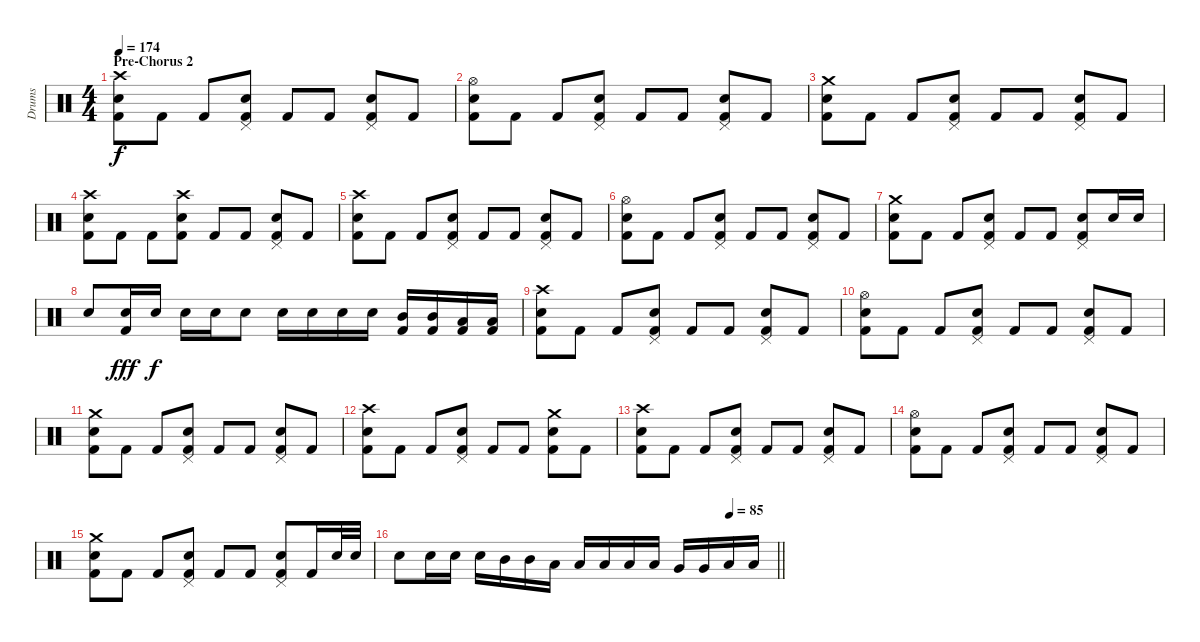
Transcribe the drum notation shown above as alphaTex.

\track ("Drums" "Drums") {instrument percussion}
\staff {score}
\articulation defaults
\ts (4 4)
\section ("" "Pre-Chorus 2")
\tempo 174
\clef neutral
\ks c
("Crash high (hit)" "Electric Snare (hit)" "Kick (hit) 2").8{dy f} "Kick (hit) 2".8 "Kick (hit) 2".8 ("Pedal Hi-Hat (hit)" "Electric Snare (hit)" "Kick (hit) 2").8 "Kick (hit) 2".8 "Kick (hit) 2".8 ("Pedal Hi-Hat (hit)" "Electric Snare (hit)" "Kick (hit) 2").8 "Kick (hit) 2".8 |
("Hi-Hat (open)" "Electric Snare (hit)" "Kick (hit) 2").8 "Kick (hit) 2".8 "Kick (hit) 2".8 ("Pedal Hi-Hat (hit)" "Electric Snare (hit)" "Kick (hit) 2").8 "Kick (hit) 2".8 "Kick (hit) 2".8 ("Pedal Hi-Hat (hit)" "Electric Snare (hit)" "Kick (hit) 2").8 "Kick (hit) 2".8 |
("Crash medium (hit)" "Electric Snare (hit)" "Kick (hit) 2").8 "Kick (hit) 2".8 "Kick (hit) 2".8 ("Pedal Hi-Hat (hit)" "Electric Snare (hit)" "Kick (hit) 2").8 "Kick (hit) 2".8 "Kick (hit) 2".8 ("Pedal Hi-Hat (hit)" "Electric Snare (hit)" "Kick (hit) 2").8 "Kick (hit) 2".8 |
("Crash high (hit)" "Electric Snare (hit)" "Kick (hit) 2").8 "Kick (hit) 2".8 "Kick (hit) 2".8 ("Crash high (hit)" "Electric Snare (hit)" "Kick (hit) 2").8 "Kick (hit) 2".8 "Kick (hit) 2".8 ("Pedal Hi-Hat (hit)" "Electric Snare (hit)" "Kick (hit) 2").8 "Kick (hit) 2".8 |
("Crash high (hit)" "Electric Snare (hit)" "Kick (hit) 2").8 "Kick (hit) 2".8 "Kick (hit) 2".8 ("Pedal Hi-Hat (hit)" "Electric Snare (hit)" "Kick (hit) 2").8 "Kick (hit) 2".8 "Kick (hit) 2".8 ("Pedal Hi-Hat (hit)" "Electric Snare (hit)" "Kick (hit) 2").8 "Kick (hit) 2".8 |
("Hi-Hat (open)" "Electric Snare (hit)" "Kick (hit) 2").8 "Kick (hit) 2".8 "Kick (hit) 2".8 ("Pedal Hi-Hat (hit)" "Electric Snare (hit)" "Kick (hit) 2").8 "Kick (hit) 2".8 "Kick (hit) 2".8 ("Pedal Hi-Hat (hit)" "Electric Snare (hit)" "Kick (hit) 2").8 "Kick (hit) 2".8 |
("Crash medium (hit)" "Electric Snare (hit)" "Kick (hit) 2").8 "Kick (hit) 2".8 "Kick (hit) 2".8 ("Pedal Hi-Hat (hit)" "Electric Snare (hit)" "Kick (hit) 2").8 "Kick (hit) 2".8 "Kick (hit) 2".8 ("Pedal Hi-Hat (hit)" "Electric Snare (hit)" "Kick (hit) 2").8 "Electric Snare (hit)".16 "Electric Snare (hit)".16 |
"Electric Snare (hit)".8 ("Electric Snare (hit)" "Kick (hit) 2").16{dy fff} "Electric Snare (hit)".16{dy f} "Electric Snare (hit)".16 "Electric Snare (hit)".16 "Electric Snare (hit)".8 "Electric Snare (hit)".16 "Electric Snare (hit)".16 "Electric Snare (hit)".16 "Electric Snare (hit)".16 ("Mid Tom (hit)" "Kick (hit) 2").16 ("Mid Tom (hit)" "Kick (hit) 2").16 ("Low Tom (hit)" "Kick (hit) 2").16 ("Low Tom (hit)" "Kick (hit) 2").16 |
("Crash high (hit)" "Electric Snare (hit)" "Kick (hit) 2").8 "Kick (hit) 2".8 "Kick (hit) 2".8 ("Pedal Hi-Hat (hit)" "Electric Snare (hit)" "Kick (hit) 2").8 "Kick (hit) 2".8 "Kick (hit) 2".8 ("Pedal Hi-Hat (hit)" "Electric Snare (hit)" "Kick (hit) 2").8 "Kick (hit) 2".8 |
("Hi-Hat (open)" "Electric Snare (hit)" "Kick (hit) 2").8 "Kick (hit) 2".8 "Kick (hit) 2".8 ("Pedal Hi-Hat (hit)" "Electric Snare (hit)" "Kick (hit) 2").8 "Kick (hit) 2".8 "Kick (hit) 2".8 ("Pedal Hi-Hat (hit)" "Electric Snare (hit)" "Kick (hit) 2").8 "Kick (hit) 2".8 |
("Crash medium (hit)" "Electric Snare (hit)" "Kick (hit) 2").8 "Kick (hit) 2".8 "Kick (hit) 2".8 ("Pedal Hi-Hat (hit)" "Electric Snare (hit)" "Kick (hit) 2").8 "Kick (hit) 2".8 "Kick (hit) 2".8 ("Pedal Hi-Hat (hit)" "Electric Snare (hit)" "Kick (hit) 2").8 "Kick (hit) 2".8 |
("Crash high (hit)" "Electric Snare (hit)" "Kick (hit) 2").8 "Kick (hit) 2".8 "Kick (hit) 2".8 ("Pedal Hi-Hat (hit)" "Electric Snare (hit)" "Kick (hit) 2").8 "Kick (hit) 2".8 "Kick (hit) 2".8 ("Crash medium (hit)" "Electric Snare (hit)" "Kick (hit) 2").8 "Kick (hit) 2".8 |
("Crash high (hit)" "Electric Snare (hit)" "Kick (hit) 2").8 "Kick (hit) 2".8 "Kick (hit) 2".8 ("Pedal Hi-Hat (hit)" "Electric Snare (hit)" "Kick (hit) 2").8 "Kick (hit) 2".8 "Kick (hit) 2".8 ("Pedal Hi-Hat (hit)" "Electric Snare (hit)" "Kick (hit) 2").8 "Kick (hit) 2".8 |
("Hi-Hat (open)" "Electric Snare (hit)" "Kick (hit) 2").8 "Kick (hit) 2".8 "Kick (hit) 2".8 ("Pedal Hi-Hat (hit)" "Electric Snare (hit)" "Kick (hit) 2").8 "Kick (hit) 2".8 "Kick (hit) 2".8 ("Pedal Hi-Hat (hit)" "Electric Snare (hit)" "Kick (hit) 2").8 "Kick (hit) 2".8 |
("Crash medium (hit)" "Electric Snare (hit)" "Kick (hit) 2").8 "Kick (hit) 2".8 "Kick (hit) 2".8 ("Pedal Hi-Hat (hit)" "Electric Snare (hit)" "Kick (hit) 2").8 "Kick (hit) 2".8 "Kick (hit) 2".8 ("Pedal Hi-Hat (hit)" "Electric Snare (hit)" "Kick (hit) 2").8 "Kick (hit) 2".16 "Electric Snare (hit)".32 "Electric Snare (hit)".32 |
\tempo (85 0.875)
\barLineRight lightlight "Electric Snare (hit)".8 "Electric Snare (hit)".16 "Electric Snare (hit)".16 "Electric Snare (hit)".16 "Mid Tom (hit)".16 "Mid Tom (hit)".16 "Low Tom (hit)".16 "Low Tom (hit)".16 "Low Tom (hit)".16 "Low Tom (hit)".16 "Low Tom (hit)".16 "Very Low Tom (hit)".16 "Very Low Tom (hit)".16 "Low Floor Tom (hit)".16 "Low Floor Tom (hit)".16
